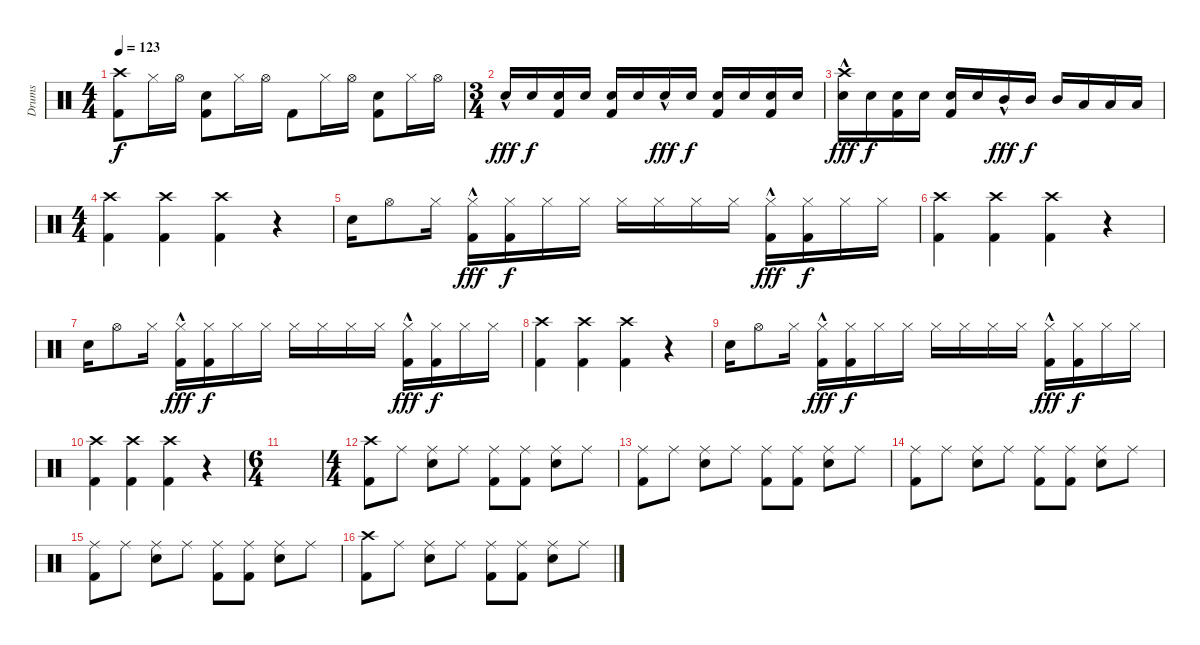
\track ("Drums" "Drums") {instrument percussion}
\staff {score}
\articulation defaults
\ts (4 4)
\tempo 123
\clef neutral
\ks c
("Crash high (hit)" "Kick (hit) 2").8{dy f} "Hi-Hat (closed)".16 "Hi-Hat (open)".16 ("Snare (hit) 2" "Kick (hit) 2").8 "Hi-Hat (closed)".16 "Hi-Hat (open)".16 "Kick (hit) 2".8 "Hi-Hat (closed)".16 "Hi-Hat (open)".16 ("Snare (hit) 2" "Kick (hit) 2").8 "Hi-Hat (closed)".16 "Hi-Hat (open)".16 |
\ts (3 4)
"Snare (hit) 2"{hac}.16{dy fff} "Snare (hit) 2".16{dy f} ("Snare (hit) 2" "Kick (hit) 2").16 "Snare (hit) 2".16 ("Snare (hit) 2" "Kick (hit) 2").16 "Snare (hit) 2".16 "Snare (hit) 2"{hac}.16{dy fff} "Snare (hit) 2".16{dy f} ("Snare (hit) 2" "Kick (hit) 2").16 "Snare (hit) 2".16 ("Snare (hit) 2" "Kick (hit) 2").16 "Snare (hit) 2".16 |
("Crash high (hit)" "Snare (hit) 2"{hac}).16{dy fff} "Snare (hit) 2".16{dy f} ("Snare (hit) 2" "Kick (hit) 2").16 "Snare (hit) 2".16 ("Snare (hit) 2" "Kick (hit) 2").16 "Snare (hit) 2".16 "Mid Tom (hit)"{hac}.16{dy fff} "Mid Tom (hit)".16{dy f} "Mid Tom (hit)".16 "Low Tom (hit)".16 "Low Tom (hit)".16 "Low Tom (hit)".16 |
\ts (4 4)
("Crash high (hit)" "Kick (hit) 2").4 ("Crash high (hit)" "Kick (hit) 2").4 ("Crash high (hit)" "Kick (hit) 2").4 r.4 |
"Snare (hit) 2".16 "Hi-Hat (open)".8 "Hi-Hat (closed)".16 ("Hi-Hat (closed)"{hac} "Kick (hit) 2").16{dy fff} ("Hi-Hat (closed)" "Kick (hit) 2").16{dy f} "Hi-Hat (closed)".16 "Hi-Hat (closed)".16 "Hi-Hat (closed)".16 "Hi-Hat (closed)".16 "Hi-Hat (closed)".16 "Hi-Hat (closed)".16 ("Hi-Hat (closed)"{hac} "Kick (hit) 2").16{dy fff} ("Hi-Hat (closed)" "Kick (hit) 2").16{dy f} "Hi-Hat (closed)".16 "Hi-Hat (closed)".16 |
("Crash high (hit)" "Kick (hit) 2").4 ("Crash high (hit)" "Kick (hit) 2").4 ("Crash high (hit)" "Kick (hit) 2").4 r.4 |
"Snare (hit) 2".16 "Hi-Hat (open)".8 "Hi-Hat (closed)".16 ("Hi-Hat (closed)"{hac} "Kick (hit) 2").16{dy fff} ("Hi-Hat (closed)" "Kick (hit) 2").16{dy f} "Hi-Hat (closed)".16 "Hi-Hat (closed)".16 "Hi-Hat (closed)".16 "Hi-Hat (closed)".16 "Hi-Hat (closed)".16 "Hi-Hat (closed)".16 ("Hi-Hat (closed)"{hac} "Kick (hit) 2").16{dy fff} ("Hi-Hat (closed)" "Kick (hit) 2").16{dy f} "Hi-Hat (closed)".16 "Hi-Hat (closed)".16 |
("Crash high (hit)" "Kick (hit) 2").4 ("Crash high (hit)" "Kick (hit) 2").4 ("Crash high (hit)" "Kick (hit) 2").4 r.4 |
"Snare (hit) 2".16 "Hi-Hat (open)".8 "Hi-Hat (closed)".16 ("Hi-Hat (closed)"{hac} "Kick (hit) 2").16{dy fff} ("Hi-Hat (closed)" "Kick (hit) 2").16{dy f} "Hi-Hat (closed)".16 "Hi-Hat (closed)".16 "Hi-Hat (closed)".16 "Hi-Hat (closed)".16 "Hi-Hat (closed)".16 "Hi-Hat (closed)".16 ("Hi-Hat (closed)"{hac} "Kick (hit) 2").16{dy fff} ("Hi-Hat (closed)" "Kick (hit) 2").16{dy f} "Hi-Hat (closed)".16 "Hi-Hat (closed)".16 |
("Crash high (hit)" "Kick (hit) 2").4 ("Crash high (hit)" "Kick (hit) 2").4 ("Crash high (hit)" "Kick (hit) 2").4 r.4 |
\ts (6 4)
|
\ts (4 4)
("Crash high (hit)" "Kick (hit) 2").8 "Ride (middle)".8 ("Ride (middle)" "Snare (hit) 2").8 "Ride (middle)".8 ("Ride (middle)" "Kick (hit) 2").8 ("Ride (middle)" "Kick (hit) 2").8 ("Ride (middle)" "Snare (hit) 2").8 "Ride (middle)".8 |
("Ride (middle)" "Kick (hit) 2").8 "Ride (middle)".8 ("Ride (middle)" "Snare (hit) 2").8 "Ride (middle)".8 ("Ride (middle)" "Kick (hit) 2").8 ("Ride (middle)" "Kick (hit) 2").8 ("Ride (middle)" "Snare (hit) 2").8 "Ride (middle)".8 |
("Ride (middle)" "Kick (hit) 2").8 "Ride (middle)".8 ("Ride (middle)" "Snare (hit) 2").8 "Ride (middle)".8 ("Ride (middle)" "Kick (hit) 2").8 ("Ride (middle)" "Kick (hit) 2").8 ("Ride (middle)" "Snare (hit) 2").8 "Ride (middle)".8 |
("Ride (middle)" "Kick (hit) 2").8 "Ride (middle)".8 ("Ride (middle)" "Snare (hit) 2").8 "Ride (middle)".8 ("Ride (middle)" "Kick (hit) 2").8 ("Ride (middle)" "Kick (hit) 2").8 ("Ride (middle)" "Snare (hit) 2").8 "Ride (middle)".8 |
("Crash high (hit)" "Kick (hit) 2").8 "Ride (middle)".8 ("Ride (middle)" "Snare (hit) 2").8 "Ride (middle)".8 ("Ride (middle)" "Kick (hit) 2").8 ("Ride (middle)" "Kick (hit) 2").8 ("Ride (middle)" "Snare (hit) 2").8 "Ride (middle)".8
